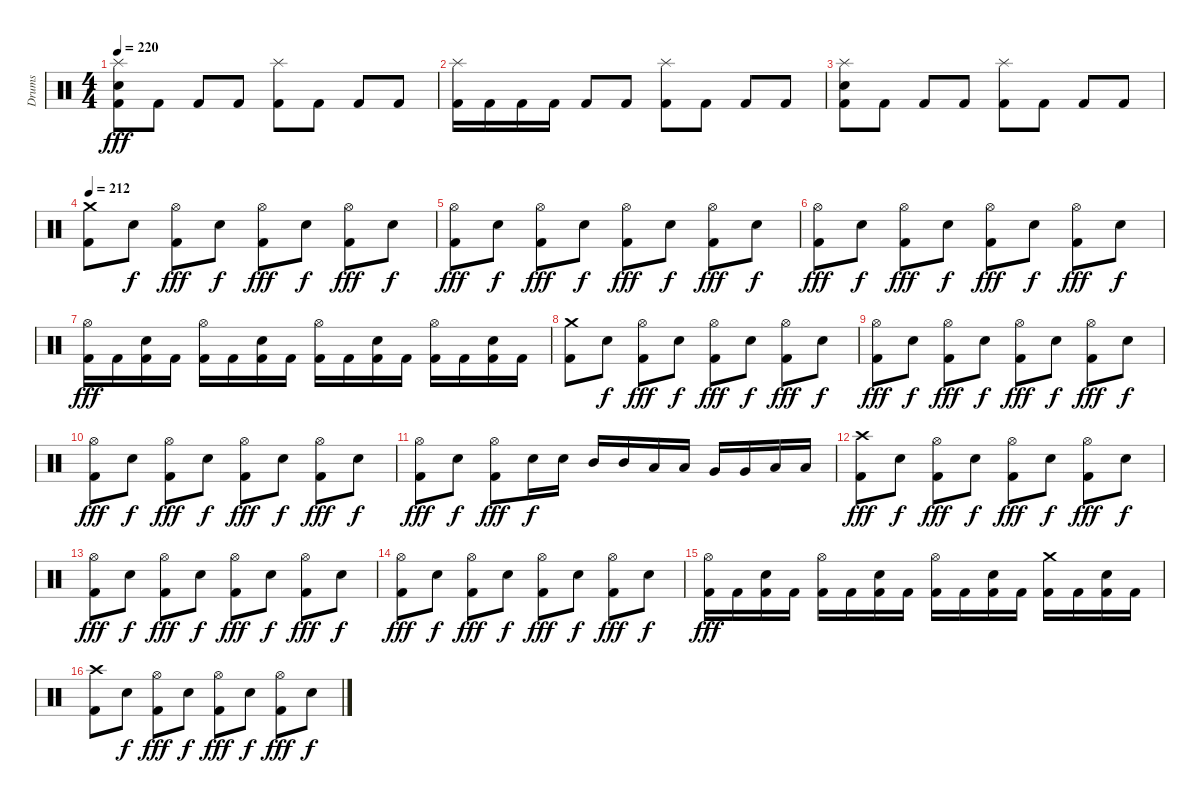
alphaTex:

\track ("Drums" "Drums") {instrument percussion}
\staff {score}
\articulation defaults
\ts (4 4)
\tempo 220
\clef neutral
\ks c
("Splash (hit)" "Snare (hit) 2" "Kick (hit) 2").8{dy fff} "Kick (hit) 2".8 "Kick (hit) 2".8 "Kick (hit) 2".8 ("Splash (hit)" "Kick (hit) 2").8 "Kick (hit) 2".8 "Kick (hit) 2".8 "Kick (hit) 2".8 |
("Splash (hit)" "Kick (hit) 2").16 "Kick (hit) 2".16 "Kick (hit) 2".16 "Kick (hit) 2".16 "Kick (hit) 2".8 "Kick (hit) 2".8 ("Splash (hit)" "Kick (hit) 2").8 "Kick (hit) 2".8 "Kick (hit) 2".8 "Kick (hit) 2".8 |
("Splash (hit)" "Snare (hit) 2" "Kick (hit) 2").8 "Kick (hit) 2".8 "Kick (hit) 2".8 "Kick (hit) 2".8 ("Splash (hit)" "Kick (hit) 2").8 "Kick (hit) 2".8 "Kick (hit) 2".8 "Kick (hit) 2".8 |
\tempo 212
("Crash medium (hit)" "Kick (hit) 2").8 "Snare (hit) 2".8{dy f} ("Hi-Hat (open)" "Kick (hit) 2").8{dy fff} "Snare (hit) 2".8{dy f} ("Hi-Hat (open)" "Kick (hit) 2").8{dy fff} "Snare (hit) 2".8{dy f} ("Hi-Hat (open)" "Kick (hit) 2").8{dy fff} "Snare (hit) 2".8{dy f} |
("Hi-Hat (open)" "Kick (hit) 2").8{dy fff} "Snare (hit) 2".8{dy f} ("Hi-Hat (open)" "Kick (hit) 2").8{dy fff} "Snare (hit) 2".8{dy f} ("Hi-Hat (open)" "Kick (hit) 2").8{dy fff} "Snare (hit) 2".8{dy f} ("Hi-Hat (open)" "Kick (hit) 2").8{dy fff} "Snare (hit) 2".8{dy f} |
("Hi-Hat (open)" "Kick (hit) 2").8{dy fff} "Snare (hit) 2".8{dy f} ("Hi-Hat (open)" "Kick (hit) 2").8{dy fff} "Snare (hit) 2".8{dy f} ("Hi-Hat (open)" "Kick (hit) 2").8{dy fff} "Snare (hit) 2".8{dy f} ("Hi-Hat (open)" "Kick (hit) 2").8{dy fff} "Snare (hit) 2".8{dy f} |
("Hi-Hat (open)" "Kick (hit) 2").16{dy fff} "Kick (hit) 2".16 ("Snare (hit) 2" "Kick (hit) 2").16 "Kick (hit) 2".16 ("Hi-Hat (open)" "Kick (hit) 2").16 "Kick (hit) 2".16 ("Snare (hit) 2" "Kick (hit) 2").16 "Kick (hit) 2".16 ("Hi-Hat (open)" "Kick (hit) 2").16 "Kick (hit) 2".16 ("Snare (hit) 2" "Kick (hit) 2").16 "Kick (hit) 2".16 ("Hi-Hat (open)" "Kick (hit) 2").16 "Kick (hit) 2".16 ("Snare (hit) 2" "Kick (hit) 2").16 "Kick (hit) 2".16 |
("Crash medium (hit)" "Kick (hit) 2").8 "Snare (hit) 2".8{dy f} ("Hi-Hat (open)" "Kick (hit) 2").8{dy fff} "Snare (hit) 2".8{dy f} ("Hi-Hat (open)" "Kick (hit) 2").8{dy fff} "Snare (hit) 2".8{dy f} ("Hi-Hat (open)" "Kick (hit) 2").8{dy fff} "Snare (hit) 2".8{dy f} |
("Hi-Hat (open)" "Kick (hit) 2").8{dy fff} "Snare (hit) 2".8{dy f} ("Hi-Hat (open)" "Kick (hit) 2").8{dy fff} "Snare (hit) 2".8{dy f} ("Hi-Hat (open)" "Kick (hit) 2").8{dy fff} "Snare (hit) 2".8{dy f} ("Hi-Hat (open)" "Kick (hit) 2").8{dy fff} "Snare (hit) 2".8{dy f} |
("Hi-Hat (open)" "Kick (hit) 2").8{dy fff} "Snare (hit) 2".8{dy f} ("Hi-Hat (open)" "Kick (hit) 2").8{dy fff} "Snare (hit) 2".8{dy f} ("Hi-Hat (open)" "Kick (hit) 2").8{dy fff} "Snare (hit) 2".8{dy f} ("Hi-Hat (open)" "Kick (hit) 2").8{dy fff} "Snare (hit) 2".8{dy f} |
("Hi-Hat (open)" "Kick (hit) 2").8{dy fff} "Snare (hit) 2".8{dy f} ("Hi-Hat (open)" "Kick (hit) 2").8{dy fff} "Snare (hit) 2".16{dy f} "Snare (hit) 2".16 "Mid Tom (hit)".16 "Mid Tom (hit)".16 "Low Tom (hit)".16 "Low Tom (hit)".16 "Very Low Tom (hit)".16 "Very Low Tom (hit)".16 "Low Floor Tom (hit)".16 "Low Floor Tom (hit)".16 |
("Crash high (hit)" "Kick (hit) 2").8{dy fff} "Snare (hit) 2".8{dy f} ("Hi-Hat (open)" "Kick (hit) 2").8{dy fff} "Snare (hit) 2".8{dy f} ("Hi-Hat (open)" "Kick (hit) 2").8{dy fff} "Snare (hit) 2".8{dy f} ("Hi-Hat (open)" "Kick (hit) 2").8{dy fff} "Snare (hit) 2".8{dy f} |
("Hi-Hat (open)" "Kick (hit) 2").8{dy fff} "Snare (hit) 2".8{dy f} ("Hi-Hat (open)" "Kick (hit) 2").8{dy fff} "Snare (hit) 2".8{dy f} ("Hi-Hat (open)" "Kick (hit) 2").8{dy fff} "Snare (hit) 2".8{dy f} ("Hi-Hat (open)" "Kick (hit) 2").8{dy fff} "Snare (hit) 2".8{dy f} |
("Hi-Hat (open)" "Kick (hit) 2").8{dy fff} "Snare (hit) 2".8{dy f} ("Hi-Hat (open)" "Kick (hit) 2").8{dy fff} "Snare (hit) 2".8{dy f} ("Hi-Hat (open)" "Kick (hit) 2").8{dy fff} "Snare (hit) 2".8{dy f} ("Hi-Hat (open)" "Kick (hit) 2").8{dy fff} "Snare (hit) 2".8{dy f} |
("Hi-Hat (open)" "Kick (hit) 2").16{dy fff} "Kick (hit) 2".16 ("Snare (hit) 2" "Kick (hit) 2").16 "Kick (hit) 2".16 ("Hi-Hat (open)" "Kick (hit) 2").16 "Kick (hit) 2".16 ("Snare (hit) 2" "Kick (hit) 2").16 "Kick (hit) 2".16 ("Hi-Hat (open)" "Kick (hit) 2").16 "Kick (hit) 2".16 ("Snare (hit) 2" "Kick (hit) 2").16 "Kick (hit) 2".16 ("Crash medium (hit)" "Kick (hit) 2").16 "Kick (hit) 2".16 ("Snare (hit) 2" "Kick (hit) 2").16 "Kick (hit) 2".16 |
("Crash high (hit)" "Kick (hit) 2").8 "Snare (hit) 2".8{dy f} ("Hi-Hat (open)" "Kick (hit) 2").8{dy fff} "Snare (hit) 2".8{dy f} ("Hi-Hat (open)" "Kick (hit) 2").8{dy fff} "Snare (hit) 2".8{dy f} ("Hi-Hat (open)" "Kick (hit) 2").8{dy fff} "Snare (hit) 2".8{dy f}
